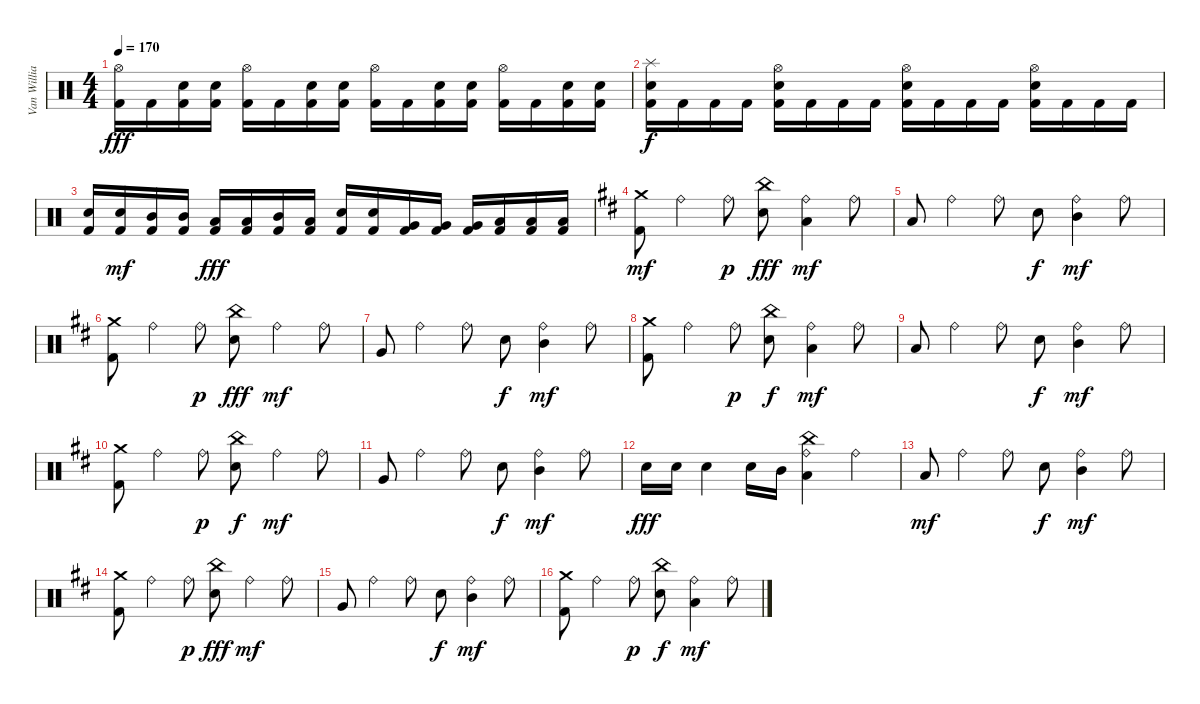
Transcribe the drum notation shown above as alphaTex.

\track ("Van Williams" "Van Willia") {instrument percussion}
\staff {score}
\articulation defaults
\ts (4 4)
\tempo 170
\clef neutral
\ks c
("Hi-Hat (open)" "Kick (hit) 2").16{dy fff} "Kick (hit) 2".16 ("Electric Snare (hit)" "Kick (hit) 2").16 ("Electric Snare (hit)" "Kick (hit) 2").16 ("Hi-Hat (open)" "Kick (hit) 2").16 "Kick (hit) 2".16 ("Electric Snare (hit)" "Kick (hit) 2").16 ("Electric Snare (hit)" "Kick (hit) 2").16 ("Hi-Hat (open)" "Kick (hit) 2").16 "Kick (hit) 2".16 ("Electric Snare (hit)" "Kick (hit) 2").16 ("Electric Snare (hit)" "Kick (hit) 2").16 ("Hi-Hat (open)" "Kick (hit) 2").16 "Kick (hit) 2".16 ("Electric Snare (hit)" "Kick (hit) 2").16 ("Electric Snare (hit)" "Kick (hit) 2").16 |
("Splash (hit)" "Electric Snare (hit)" "Kick (hit) 2").16{dy f} "Kick (hit) 2".16 "Kick (hit) 2".16 "Kick (hit) 2".16 ("Hi-Hat (open)" "Electric Snare (hit)" "Kick (hit) 2").16 "Kick (hit) 2".16 "Kick (hit) 2".16 "Kick (hit) 2".16 ("Hi-Hat (open)" "Electric Snare (hit)" "Kick (hit) 2").16 "Kick (hit) 2".16 "Kick (hit) 2".16 "Kick (hit) 2".16 ("Hi-Hat (open)" "Electric Snare (hit)" "Kick (hit) 2").16 "Kick (hit) 2".16 "Kick (hit) 2".16 "Kick (hit) 2".16 |
("Electric Snare (hit)" "Kick (hit) 2").16 ("Electric Snare (hit)" "Kick (hit) 2").16{dy mf} ("Mid Tom (hit)" "Kick (hit) 2").16 ("Mid Tom (hit)" "Kick (hit) 2").16 ("Low Tom (hit)" "Kick (hit) 2").16{dy fff} ("Low Tom (hit)" "Kick (hit) 2").16 ("Mid Tom (hit)" "Kick (hit) 2").16 ("Low Tom (hit)" "Kick (hit) 2").16 ("Electric Snare (hit)" "Kick (hit) 2").16 ("Electric Snare (hit)" "Kick (hit) 2").16 ("Very Low Tom (hit)" "Kick (hit) 2").16 ("Very Low Tom (hit)" "Kick (hit) 2").16 ("Very Low Tom (hit)" "Kick (hit) 2").16 ("Low Floor Tom (hit)" "Kick (hit) 2").16 ("Low Floor Tom (hit)" "Kick (hit) 2").16 ("Low Floor Tom (hit)" "Kick (hit) 2").16 |
\ks d
("Crash medium (hit)" "Kick (hit) 2").8{dy mf} "Ride (bell)".4 "Ride (bell)".8{dy p} ("China (hit)" "Electric Snare (hit)").8{dy fff} ("Ride (bell)" "Low Tom (hit)").4{dy mf} "Ride (bell)".8 |
"Low Tom (hit)".8 "Ride (bell)".4 "Ride (bell)".8 "Electric Snare (hit)".8{dy f} ("Ride (bell)" "Mid Tom (hit)").4{dy mf} "Ride (bell)".8 |
("Crash medium (hit)" "Kick (hit) 2").8 "Ride (bell)".4 "Ride (bell)".8{dy p} ("China (hit)" "Electric Snare (hit)").8{dy fff} "Ride (bell)".4{dy mf} "Ride (bell)".8 |
"Very Low Tom (hit)".8 "Ride (bell)".4 "Ride (bell)".8 "Electric Snare (hit)".8{dy f} ("Ride (bell)" "Mid Tom (hit)").4{dy mf} "Ride (bell)".8 |
("Crash medium (hit)" "Kick (hit) 2").8 "Ride (bell)".4 "Ride (bell)".8{dy p} ("China (hit)" "Electric Snare (hit)").8{dy f} ("Ride (bell)" "Low Tom (hit)").4{dy mf} "Ride (bell)".8 |
"Low Tom (hit)".8 "Ride (bell)".4 "Ride (bell)".8 "Electric Snare (hit)".8{dy f} ("Ride (bell)" "Mid Tom (hit)").4{dy mf} "Ride (bell)".8 |
("Crash medium (hit)" "Kick (hit) 2").8 "Ride (bell)".4 "Ride (bell)".8{dy p} ("China (hit)" "Electric Snare (hit)").8{dy f} "Ride (bell)".4{dy mf} "Ride (bell)".8 |
"Very Low Tom (hit)".8 "Ride (bell)".4 "Ride (bell)".8 "Electric Snare (hit)".8{dy f} ("Ride (bell)" "Mid Tom (hit)").4{dy mf} "Ride (bell)".8 |
"Electric Snare (hit)".16{dy fff} "Electric Snare (hit)".16 "Electric Snare (hit)".4 "Electric Snare (hit)".16 "Mid Tom (hit)".16 ("Ride (bell)" "China (hit)" "Low Tom (hit)").4 "Ride (bell)".4 |
"Low Tom (hit)".8{dy mf} "Ride (bell)".4 "Ride (bell)".8 "Electric Snare (hit)".8{dy f} ("Ride (bell)" "Mid Tom (hit)").4{dy mf} "Ride (bell)".8 |
("Crash medium (hit)" "Kick (hit) 2").8 "Ride (bell)".4 "Ride (bell)".8{dy p} ("China (hit)" "Electric Snare (hit)").8{dy fff} "Ride (bell)".4{dy mf} "Ride (bell)".8 |
"Very Low Tom (hit)".8 "Ride (bell)".4 "Ride (bell)".8 "Electric Snare (hit)".8{dy f} ("Ride (bell)" "Mid Tom (hit)").4{dy mf} "Ride (bell)".8 |
("Crash medium (hit)" "Kick (hit) 2").8 "Ride (bell)".4 "Ride (bell)".8{dy p} ("China (hit)" "Electric Snare (hit)").8{dy f} ("Ride (bell)" "Low Tom (hit)").4{dy mf} "Ride (bell)".8
